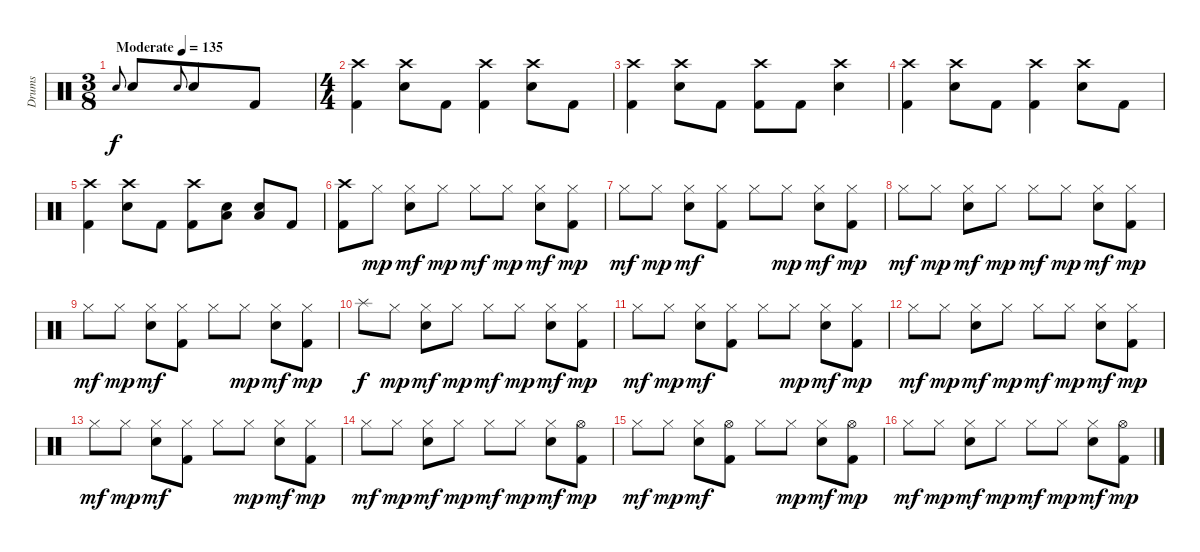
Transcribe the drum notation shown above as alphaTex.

\track ("Drums" "Drums") {instrument percussion}
\staff {score}
\articulation defaults
\ts (3 8)
\tempo (135 "Moderate")
\clef neutral
\ks c "Electric Snare (hit)".8{gr onbeat dy f} "Electric Snare (hit)".8 "Electric Snare (hit)".8{gr onbeat} "Electric Snare (hit)".8 "Kick (hit) 2".8
|
\ts (4 4)
("Crash high (hit)" "Kick (hit) 2").4 ("Crash high (hit)" "Electric Snare (hit)").8 "Kick (hit) 2".8 ("Crash high (hit)" "Kick (hit) 2").4 ("Crash high (hit)" "Electric Snare (hit)").8 "Kick (hit) 2".8 |
("Crash high (hit)" "Kick (hit) 2").4 ("Crash high (hit)" "Electric Snare (hit)").8 "Kick (hit) 2".8 ("Crash high (hit)" "Kick (hit) 2").8 "Kick (hit) 2".8 ("Crash high (hit)" "Electric Snare (hit)").4 |
("Crash high (hit)" "Kick (hit) 2").4 ("Crash high (hit)" "Electric Snare (hit)").8 "Kick (hit) 2".8 ("Crash high (hit)" "Kick (hit) 2").4 ("Crash high (hit)" "Electric Snare (hit)").8 "Kick (hit) 2".8 |
("Crash high (hit)" "Kick (hit) 2").4 ("Crash high (hit)" "Electric Snare (hit)").8 "Kick (hit) 2".8 ("Crash high (hit)" "Kick (hit) 2").8 ("Low Tom (hit)" "Electric Snare (hit)").8 ("Low Tom (hit)" "Electric Snare (hit)").8 "Kick (hit) 2".8 |
("Crash high (hit)" "Kick (hit) 2").8 "Hi-Hat (closed)".8{dy mp} ("Hi-Hat (closed)" "Electric Snare (hit)").8{dy mf} "Hi-Hat (closed)".8{dy mp} "Hi-Hat (closed)".8{dy mf} "Hi-Hat (closed)".8{dy mp} ("Hi-Hat (closed)" "Electric Snare (hit)").8{dy mf} ("Hi-Hat (closed)" "Kick (hit) 2").8{dy mp} |
"Hi-Hat (closed)".8{dy mf} "Hi-Hat (closed)".8{dy mp} ("Hi-Hat (closed)" "Electric Snare (hit)").8{dy mf} ("Hi-Hat (closed)" "Kick (hit) 2").8 "Hi-Hat (closed)".8 "Hi-Hat (closed)".8{dy mp} ("Hi-Hat (closed)" "Electric Snare (hit)").8{dy mf} ("Hi-Hat (closed)" "Kick (hit) 2").8{dy mp} |
"Hi-Hat (closed)".8{dy mf} "Hi-Hat (closed)".8{dy mp} ("Hi-Hat (closed)" "Electric Snare (hit)").8{dy mf} "Hi-Hat (closed)".8{dy mp} "Hi-Hat (closed)".8{dy mf} "Hi-Hat (closed)".8{dy mp} ("Hi-Hat (closed)" "Electric Snare (hit)").8{dy mf} ("Hi-Hat (closed)" "Kick (hit) 2").8{dy mp} |
"Hi-Hat (closed)".8{dy mf} "Hi-Hat (closed)".8{dy mp} ("Hi-Hat (closed)" "Electric Snare (hit)").8{dy mf} ("Hi-Hat (closed)" "Kick (hit) 2").8 "Hi-Hat (closed)".8 "Hi-Hat (closed)".8{dy mp} ("Hi-Hat (closed)" "Electric Snare (hit)").8{dy mf} ("Hi-Hat (closed)" "Kick (hit) 2").8{dy mp} |
"Splash (hit)".8{dy f} "Hi-Hat (closed)".8{dy mp} ("Hi-Hat (closed)" "Electric Snare (hit)").8{dy mf} "Hi-Hat (closed)".8{dy mp} "Hi-Hat (closed)".8{dy mf} "Hi-Hat (closed)".8{dy mp} ("Hi-Hat (closed)" "Electric Snare (hit)").8{dy mf} ("Hi-Hat (closed)" "Kick (hit) 2").8{dy mp} |
"Hi-Hat (closed)".8{dy mf} "Hi-Hat (closed)".8{dy mp} ("Hi-Hat (closed)" "Electric Snare (hit)").8{dy mf} ("Hi-Hat (closed)" "Kick (hit) 2").8 "Hi-Hat (closed)".8 "Hi-Hat (closed)".8{dy mp} ("Hi-Hat (closed)" "Electric Snare (hit)").8{dy mf} ("Hi-Hat (closed)" "Kick (hit) 2").8{dy mp} |
"Hi-Hat (closed)".8{dy mf} "Hi-Hat (closed)".8{dy mp} ("Hi-Hat (closed)" "Electric Snare (hit)").8{dy mf} "Hi-Hat (closed)".8{dy mp} "Hi-Hat (closed)".8{dy mf} "Hi-Hat (closed)".8{dy mp} ("Hi-Hat (closed)" "Electric Snare (hit)").8{dy mf} ("Hi-Hat (closed)" "Kick (hit) 2").8{dy mp} |
"Hi-Hat (closed)".8{dy mf} "Hi-Hat (closed)".8{dy mp} ("Hi-Hat (closed)" "Electric Snare (hit)").8{dy mf} ("Hi-Hat (closed)" "Kick (hit) 2").8 "Hi-Hat (closed)".8 "Hi-Hat (closed)".8{dy mp} ("Hi-Hat (closed)" "Electric Snare (hit)").8{dy mf} ("Hi-Hat (closed)" "Kick (hit) 2").8{dy mp} |
"Hi-Hat (closed)".8{dy mf} "Hi-Hat (closed)".8{dy mp} ("Hi-Hat (closed)" "Electric Snare (hit)").8{dy mf} "Hi-Hat (closed)".8{dy mp} "Hi-Hat (closed)".8{dy mf} "Hi-Hat (closed)".8{dy mp} ("Hi-Hat (closed)" "Electric Snare (hit)").8{dy mf} ("Hi-Hat (open)" "Kick (hit) 2").8{dy mp} |
"Hi-Hat (closed)".8{dy mf} "Hi-Hat (closed)".8{dy mp} ("Hi-Hat (closed)" "Electric Snare (hit)").8{dy mf} ("Hi-Hat (open)" "Kick (hit) 2").8 "Hi-Hat (closed)".8 "Hi-Hat (closed)".8{dy mp} ("Hi-Hat (closed)" "Electric Snare (hit)").8{dy mf} ("Hi-Hat (open)" "Kick (hit) 2").8{dy mp} |
"Hi-Hat (closed)".8{dy mf} "Hi-Hat (closed)".8{dy mp} ("Hi-Hat (closed)" "Electric Snare (hit)").8{dy mf} "Hi-Hat (closed)".8{dy mp} "Hi-Hat (closed)".8{dy mf} "Hi-Hat (closed)".8{dy mp} ("Hi-Hat (closed)" "Electric Snare (hit)").8{dy mf} ("Hi-Hat (open)" "Kick (hit) 2").8{dy mp}
